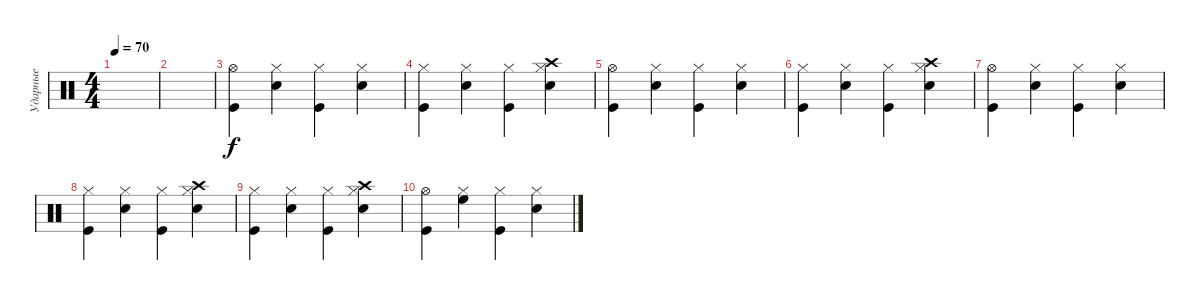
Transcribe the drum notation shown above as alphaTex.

\track ("Ударные" "Ударные") {instrument percussion}
\staff {score}
\articulation defaults
\ts (4 4)
\tempo 70
\clef neutral
\ks c
|
|
("Kick (hit)" "Hi-Hat (open)").4 ("Snare (hit) 2" "Hi-Hat (closed)").4 ("Kick (hit)" "Hi-Hat (closed)").4 ("Snare (hit) 2" "Hi-Hat (closed)").4 |
("Kick (hit)" "Hi-Hat (closed)").4 ("Snare (hit) 2" "Hi-Hat (closed)").4 ("Kick (hit)" "Hi-Hat (closed)").4 ("Crash high (hit)" "Snare (hit) 2" "Hi-Hat (closed)").4 |
("Kick (hit)" "Hi-Hat (open)").4 ("Snare (hit) 2" "Hi-Hat (closed)").4 ("Kick (hit)" "Hi-Hat (closed)").4 ("Snare (hit) 2" "Hi-Hat (closed)").4 |
("Kick (hit)" "Hi-Hat (closed)").4 ("Snare (hit) 2" "Hi-Hat (closed)").4 ("Kick (hit)" "Hi-Hat (closed)").4 ("Crash high (hit)" "Snare (hit) 2" "Hi-Hat (closed)").4 |
("Kick (hit)" "Hi-Hat (open)").4 ("Snare (hit) 2" "Hi-Hat (closed)").4 ("Kick (hit)" "Hi-Hat (closed)").4 ("Snare (hit) 2" "Hi-Hat (closed)").4 |
("Kick (hit)" "Hi-Hat (closed)").4 ("Snare (hit) 2" "Hi-Hat (closed)").4 ("Kick (hit)" "Hi-Hat (closed)").4 ("Crash high (hit)" "Snare (hit) 2" "Hi-Hat (closed)").4 |
("Kick (hit)" "Hi-Hat (closed)").4 ("Snare (hit) 2" "Hi-Hat (closed)").4 ("Kick (hit)" "Hi-Hat (closed)").4 ("Crash high (hit)" "Snare (hit) 2" "Hi-Hat (closed)").4 |
("Kick (hit)" "Hi-Hat (open)").4 ("High Floor Tom (hit)" "Hi-Hat (closed)").4 ("Kick (hit)" "Hi-Hat (closed)").4 ("Snare (hit) 2" "Hi-Hat (closed)").4
